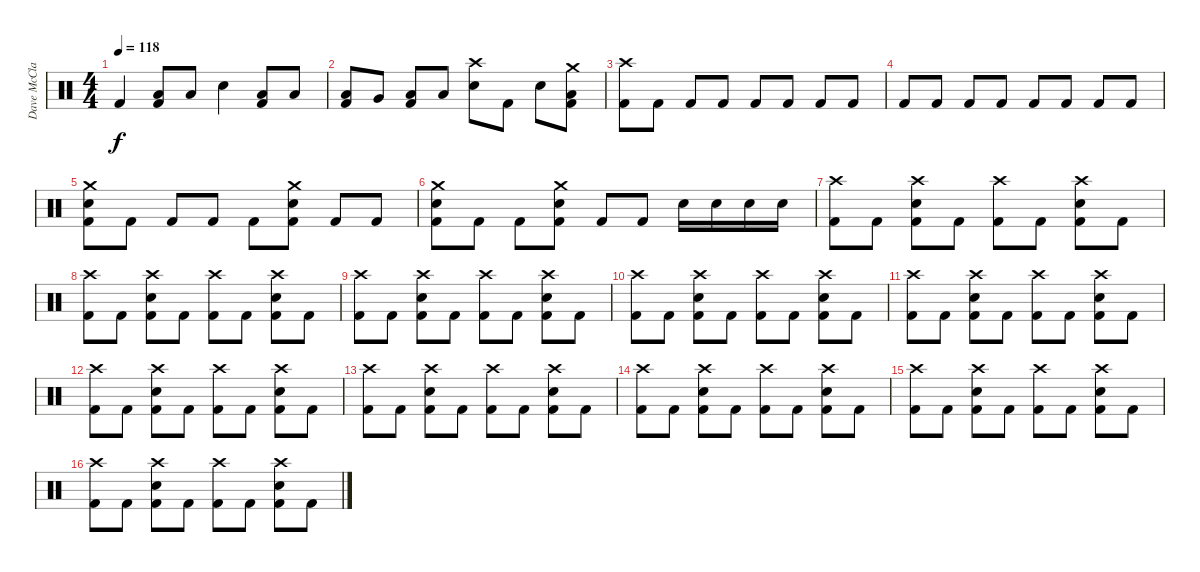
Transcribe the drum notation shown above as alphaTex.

\track ("Dave McClain" "Dave McCla") {instrument percussion}
\staff {score}
\articulation defaults
\ts (4 4)
\tempo 118
\clef neutral
\ks c "Kick (hit) 2".4{dy f}
("Kick (hit) 2" "Low Floor Tom (hit)").8 "Low Floor Tom (hit)".8 "Snare (hit) 2".4 ("Kick (hit) 2" "Low Floor Tom (hit)").8 "Low Floor Tom (hit)".8 |
("Kick (hit) 2" "Low Tom (hit)").8 "Very Low Tom (hit)".8 ("Kick (hit) 2" "Low Floor Tom (hit)").8 "Low Floor Tom (hit)".8 ("Snare (hit) 2" "Crash high (hit)").8 "Kick (hit) 2".8 "Snare (hit) 2".8 ("Kick (hit) 2" "Low Floor Tom (hit)" "Crash medium (hit)").8 |
("Kick (hit) 2" "Crash high (hit)").8 "Kick (hit) 2".8 "Kick (hit) 2".8 "Kick (hit) 2".8 "Kick (hit) 2".8 "Kick (hit) 2".8 "Kick (hit) 2".8 "Kick (hit) 2".8 |
"Kick (hit) 2".8 "Kick (hit) 2".8 "Kick (hit) 2".8 "Kick (hit) 2".8 "Kick (hit) 2".8 "Kick (hit) 2".8 "Kick (hit) 2".8 "Kick (hit) 2".8 |
("Kick (hit) 2" "Snare (hit) 2" "Crash medium (hit)").8 "Kick (hit) 2".8 "Kick (hit) 2".8 "Kick (hit) 2".8 "Kick (hit) 2".8 ("Kick (hit) 2" "Snare (hit) 2" "Crash medium (hit)").8 "Kick (hit) 2".8 "Kick (hit) 2".8 |
("Kick (hit) 2" "Snare (hit) 2" "Crash medium (hit)").8 "Kick (hit) 2".8 "Kick (hit) 2".8 ("Kick (hit) 2" "Snare (hit) 2" "Crash medium (hit)").8 "Kick (hit) 2".8 "Kick (hit) 2".8 "Snare (hit) 2".16 "Snare (hit) 2".16 "Snare (hit) 2".16 "Snare (hit) 2".16 |
("Kick (hit) 2" "Crash high (hit)").8 "Kick (hit) 2".8 ("Kick (hit) 2" "Snare (hit) 2" "Crash high (hit)").8 "Kick (hit) 2".8 ("Kick (hit) 2" "Crash high (hit)").8 "Kick (hit) 2".8 ("Kick (hit) 2" "Snare (hit) 2" "Crash high (hit)").8 "Kick (hit) 2".8 |
("Kick (hit) 2" "Crash high (hit)").8 "Kick (hit) 2".8 ("Kick (hit) 2" "Snare (hit) 2" "Crash high (hit)").8 "Kick (hit) 2".8 ("Kick (hit) 2" "Crash high (hit)").8 "Kick (hit) 2".8 ("Kick (hit) 2" "Snare (hit) 2" "Crash high (hit)").8 "Kick (hit) 2".8 |
("Kick (hit) 2" "Crash high (hit)").8 "Kick (hit) 2".8 ("Kick (hit) 2" "Snare (hit) 2" "Crash high (hit)").8 "Kick (hit) 2".8 ("Kick (hit) 2" "Crash high (hit)").8 "Kick (hit) 2".8 ("Kick (hit) 2" "Snare (hit) 2" "Crash high (hit)").8 "Kick (hit) 2".8 |
("Kick (hit) 2" "Crash high (hit)").8 "Kick (hit) 2".8 ("Kick (hit) 2" "Snare (hit) 2" "Crash high (hit)").8 "Kick (hit) 2".8 ("Kick (hit) 2" "Crash high (hit)").8 "Kick (hit) 2".8 ("Kick (hit) 2" "Snare (hit) 2" "Crash high (hit)").8 "Kick (hit) 2".8 |
("Kick (hit) 2" "Crash high (hit)").8 "Kick (hit) 2".8 ("Kick (hit) 2" "Snare (hit) 2" "Crash high (hit)").8 "Kick (hit) 2".8 ("Kick (hit) 2" "Crash high (hit)").8 "Kick (hit) 2".8 ("Kick (hit) 2" "Snare (hit) 2" "Crash high (hit)").8 "Kick (hit) 2".8 |
("Kick (hit) 2" "Crash high (hit)").8 "Kick (hit) 2".8 ("Kick (hit) 2" "Snare (hit) 2" "Crash high (hit)").8 "Kick (hit) 2".8 ("Kick (hit) 2" "Crash high (hit)").8 "Kick (hit) 2".8 ("Kick (hit) 2" "Snare (hit) 2" "Crash high (hit)").8 "Kick (hit) 2".8 |
("Kick (hit) 2" "Crash high (hit)").8 "Kick (hit) 2".8 ("Kick (hit) 2" "Snare (hit) 2" "Crash high (hit)").8 "Kick (hit) 2".8 ("Kick (hit) 2" "Crash high (hit)").8 "Kick (hit) 2".8 ("Kick (hit) 2" "Snare (hit) 2" "Crash high (hit)").8 "Kick (hit) 2".8 |
("Kick (hit) 2" "Crash high (hit)").8 "Kick (hit) 2".8 ("Kick (hit) 2" "Snare (hit) 2" "Crash high (hit)").8 "Kick (hit) 2".8 ("Kick (hit) 2" "Crash high (hit)").8 "Kick (hit) 2".8 ("Kick (hit) 2" "Snare (hit) 2" "Crash high (hit)").8 "Kick (hit) 2".8 |
("Kick (hit) 2" "Crash high (hit)").8 "Kick (hit) 2".8 ("Kick (hit) 2" "Snare (hit) 2" "Crash high (hit)").8 "Kick (hit) 2".8 ("Kick (hit) 2" "Crash high (hit)").8 "Kick (hit) 2".8 ("Kick (hit) 2" "Snare (hit) 2" "Crash high (hit)").8 "Kick (hit) 2".8 |
("Kick (hit) 2" "Crash high (hit)").8 "Kick (hit) 2".8 ("Kick (hit) 2" "Snare (hit) 2" "Crash high (hit)").8 "Kick (hit) 2".8 ("Kick (hit) 2" "Crash high (hit)").8 "Kick (hit) 2".8 ("Kick (hit) 2" "Snare (hit) 2" "Crash high (hit)").8 "Kick (hit) 2".8
